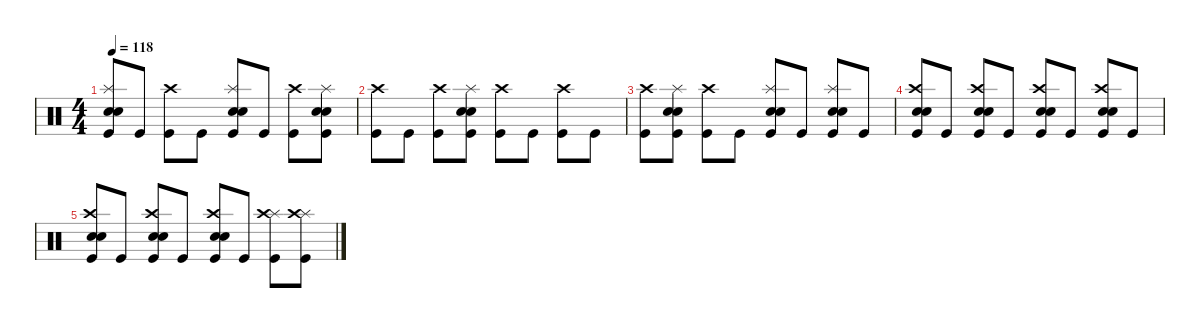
\defaultSystemsLayout 4
\hideDynamics
\bracketExtendMode nobrackets
\singleTrackTrackNamePolicy hidden
\multiTrackTrackNamePolicy hidden
\firstSystemTrackNameMode fullname
\otherSystemsTrackNameOrientation horizontal
\track ("Drums" "drm.") {instrument percussion}
\staff {score}
\articulation defaults
\ts (4 4)
\tempo 118
\clef neutral
\ks c
("Splash (hit)" "Snare (hit) 2" "Snare (hit) 2" "Kick (hit)").8{dy f beam Up} "Kick (hit)".8{beam Up} ("Crash high (hit)" "Kick (hit)").8{dy mf beam Down} "Kick (hit)".8{dy f beam Down} ("Splash (hit)" "Snare (hit) 2" "Snare (hit) 2" "Kick (hit)").8{beam Up} "Kick (hit)".8{beam Up} ("Crash high (hit)" "Kick (hit)").8{dy mf beam Down} ("Splash (hit)" "Snare (hit) 2" "Snare (hit) 2" "Kick (hit)").8{dy f beam Down} |
("Crash high (hit)" "Kick (hit)").8{dy mf beam Down} "Kick (hit)".8{dy f beam Down} ("Crash high (hit)" "Kick (hit)").8{dy mf beam Down} ("Splash (hit)" "Snare (hit) 2" "Snare (hit) 2" "Kick (hit)").8{dy f beam Down} ("Crash high (hit)" "Kick (hit)").8{dy mf beam Down} "Kick (hit)".8{dy f beam Down} ("Crash high (hit)" "Kick (hit)").8{dy mf beam Down} "Kick (hit)".8{dy f beam Down} |
("Crash high (hit)" "Kick (hit)").8{dy mf beam Down} ("Splash (hit)" "Snare (hit) 2" "Snare (hit) 2" "Kick (hit)").8{dy f beam Down} ("Crash high (hit)" "Kick (hit)").8{dy mf beam Down} "Kick (hit)".8{dy f beam Down} ("Splash (hit)" "Snare (hit) 2" "Snare (hit) 2" "Kick (hit)").8{beam Up} "Kick (hit)".8{beam Up} ("Splash (hit)" "Snare (hit) 2" "Snare (hit) 2" "Kick (hit)").8{beam Up} "Kick (hit)".8{beam Up} |
("Crash high (hit)" "Snare (hit) 2" "Snare (hit) 2" "Kick (hit)").8{dy mf beam Up} "Kick (hit)".8{dy f beam Up} ("Crash high (hit)" "Snare (hit) 2" "Snare (hit) 2" "Kick (hit)").8{dy mf beam Up} "Kick (hit)".8{dy f beam Up} ("Crash high (hit)" "Snare (hit) 2" "Snare (hit) 2" "Kick (hit)").8{dy mf beam Up} "Kick (hit)".8{dy f beam Up} ("Crash high (hit)" "Snare (hit) 2" "Snare (hit) 2" "Kick (hit)").8{dy mf beam Up} "Kick (hit)".8{dy f beam Up} |
("Crash high (hit)" "Snare (hit) 2" "Snare (hit) 2" "Kick (hit)").8{dy mf beam Up} "Kick (hit)".8{dy f beam Up} ("Crash high (hit)" "Snare (hit) 2" "Snare (hit) 2" "Kick (hit)").8{dy mf beam Up} "Kick (hit)".8{dy f beam Up} ("Crash high (hit)" "Snare (hit) 2" "Snare (hit) 2" "Kick (hit)").8{dy mf beam Up} "Kick (hit)".8{dy f beam Up} ("Splash (hit)" "Crash high (hit)" "Kick (hit)").8{beam Down} ("Splash (hit)" "Crash high (hit)" "Kick (hit)").8{beam Down}
